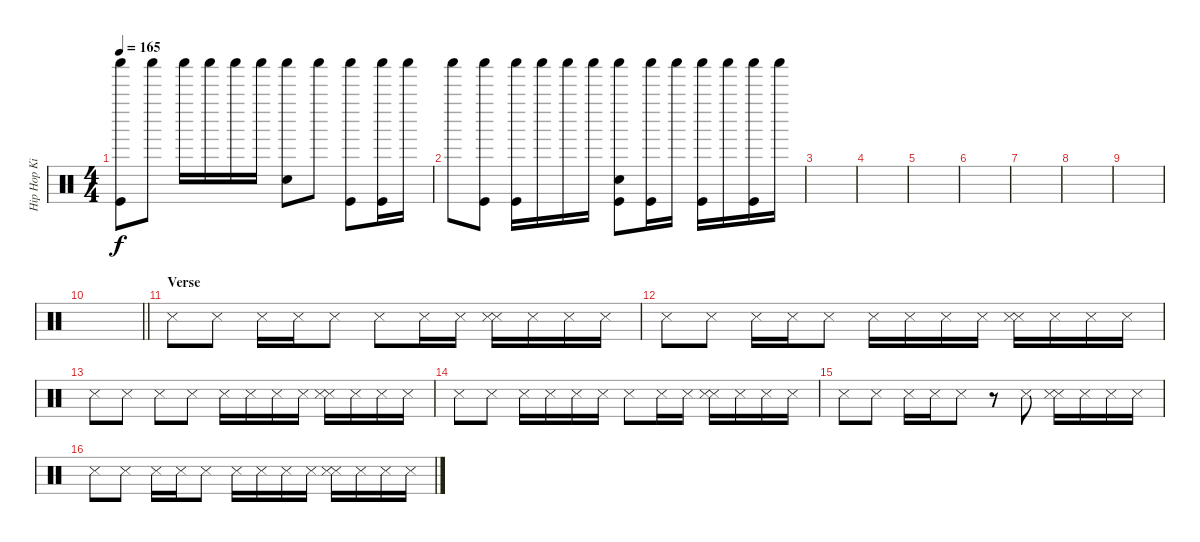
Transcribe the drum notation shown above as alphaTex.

\track ("Hip Hop Kit" "Hip Hop Ki") {instrument percussion}
\staff {score}
\articulation defaults
\ts (4 4)
\tempo 165
\clef neutral
\ks c
("Shaker (hit)" "Kick (hit)").8{dy f} "Shaker (hit)".8 "Shaker (hit)".16 "Shaker (hit)".16 "Shaker (hit)".16 "Shaker (hit)".16 ("Shaker (hit)" "Snare (hit) 2").8 "Shaker (hit)".8 ("Shaker (hit)" "Kick (hit)").8 ("Shaker (hit)" "Kick (hit)").16 "Shaker (hit)".16 |
"Shaker (hit)".8 ("Shaker (hit)" "Kick (hit)").8 ("Shaker (hit)" "Kick (hit)").16 "Shaker (hit)".16 "Shaker (hit)".16 "Shaker (hit)".16 ("Shaker (hit)" "Snare (hit) 2" "Kick (hit)").8 ("Shaker (hit)" "Kick (hit)").16 "Shaker (hit)".16 ("Shaker (hit)" "Kick (hit)").16 "Shaker (hit)".16 ("Shaker (hit)" "Kick (hit)").16 "Shaker (hit)".16 |
|
|
|
|
|
|
|
\barLineRight lightlight
|
\section ("" "Verse")
"Snare (side stick) 3".8 "Snare (side stick) 3".8 "Snare (side stick) 3".16 "Snare (side stick) 3".16 "Snare (side stick) 3".8 "Metronome (hit)".8 "Metronome (hit)".16 "Metronome (hit)".16 ("Metronome (hit)" "Snare (side stick) 3").16 "Metronome (hit)".16 "Metronome (hit)".16 "Metronome (hit)".16 |
"Snare (side stick) 3".8 "Snare (side stick) 3".8 "Snare (side stick) 3".16 "Snare (side stick) 3".16 "Snare (side stick) 3".8 "Metronome (hit)".16 "Metronome (hit)".16 "Metronome (hit)".16 "Metronome (hit)".16 ("Metronome (hit)" "Snare (side stick) 3").16 "Metronome (hit)".16 "Metronome (hit)".16 "Metronome (hit)".16 |
"Snare (side stick) 3".8 "Snare (side stick) 3".8 "Snare (side stick) 3".8 "Snare (side stick) 3".8 "Metronome (hit)".16 "Metronome (hit)".16 "Metronome (hit)".16 "Metronome (hit)".16 ("Metronome (hit)" "Snare (side stick) 3").16 "Metronome (hit)".16 "Metronome (hit)".16 "Metronome (hit)".16 |
"Snare (side stick) 3".8 "Snare (side stick) 3".8 "Snare (side stick) 3".16 "Snare (side stick) 3".16 "Snare (side stick) 3".16 "Snare (side stick) 3".16 "Metronome (hit)".8 "Metronome (hit)".16 "Metronome (hit)".16 ("Metronome (hit)" "Snare (side stick) 3").16 "Metronome (hit)".16 "Metronome (hit)".16 "Metronome (hit)".16 |
"Snare (side stick) 3".8 "Snare (side stick) 3".8 "Snare (side stick) 3".16 "Snare (side stick) 3".16 "Snare (side stick) 3".8 r.8 "Metronome (hit)".8 ("Metronome (hit)" "Snare (side stick) 3").16 "Metronome (hit)".16 "Metronome (hit)".16 "Metronome (hit)".16 |
"Snare (side stick) 3".8 "Snare (side stick) 3".8 "Snare (side stick) 3".16 "Snare (side stick) 3".16 "Snare (side stick) 3".8 "Metronome (hit)".16 "Metronome (hit)".16 "Metronome (hit)".16 "Metronome (hit)".16 ("Metronome (hit)" "Snare (side stick) 3").16 "Metronome (hit)".16 "Metronome (hit)".16 "Metronome (hit)".16
